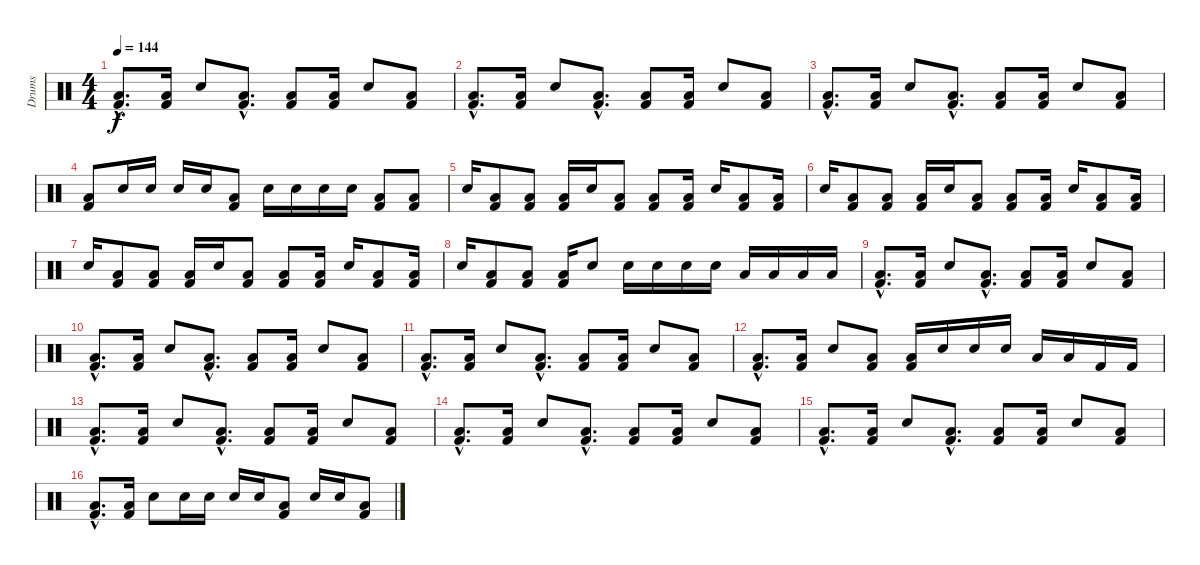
\track ("Drums" "Drums") {instrument percussion}
\staff {score}
\articulation defaults
\ts (4 4)
\tempo 144
\clef neutral
\ks c
("Low Floor Tom (hit)"{hac} "Kick (hit) 2"{hac}).8{d dy f} ("Low Floor Tom (hit)" "Kick (hit) 2").16 "Snare (hit) 2".8 ("Low Floor Tom (hit)"{hac} "Kick (hit) 2"{hac}).8{d} ("Low Floor Tom (hit)" "Kick (hit) 2").8 ("Low Floor Tom (hit)" "Kick (hit) 2").16 "Snare (hit) 2".8 ("Low Floor Tom (hit)" "Kick (hit) 2").8 |
("Low Floor Tom (hit)"{hac} "Kick (hit) 2"{hac}).8{d} ("Low Floor Tom (hit)" "Kick (hit) 2").16 "Snare (hit) 2".8 ("Low Floor Tom (hit)"{hac} "Kick (hit) 2"{hac}).8{d} ("Low Floor Tom (hit)" "Kick (hit) 2").8 ("Low Floor Tom (hit)" "Kick (hit) 2").16 "Snare (hit) 2".8 ("Low Floor Tom (hit)" "Kick (hit) 2").8 |
("Low Floor Tom (hit)"{hac} "Kick (hit) 2"{hac}).8{d} ("Low Floor Tom (hit)" "Kick (hit) 2").16 "Snare (hit) 2".8 ("Low Floor Tom (hit)"{hac} "Kick (hit) 2"{hac}).8{d} ("Low Floor Tom (hit)" "Kick (hit) 2").8 ("Low Floor Tom (hit)" "Kick (hit) 2").16 "Snare (hit) 2".8 ("Low Floor Tom (hit)" "Kick (hit) 2").8 |
("Low Floor Tom (hit)" "Kick (hit) 2").8 "Snare (hit) 2".16 "Snare (hit) 2".16 "Snare (hit) 2".16 "Snare (hit) 2".16 ("Low Floor Tom (hit)" "Kick (hit) 2").8 "Snare (hit) 2".16 "Snare (hit) 2".16 "Snare (hit) 2".16 "Snare (hit) 2".16 ("Low Floor Tom (hit)" "Kick (hit) 2").8 ("Low Floor Tom (hit)" "Kick (hit) 2").8 |
"Snare (hit) 2".16 ("Low Floor Tom (hit)" "Kick (hit) 2").8 ("Low Floor Tom (hit)" "Kick (hit) 2").8 ("Low Floor Tom (hit)" "Kick (hit) 2").16 "Snare (hit) 2".16 ("Low Floor Tom (hit)" "Kick (hit) 2").8 ("Low Floor Tom (hit)" "Kick (hit) 2").8 ("Low Floor Tom (hit)" "Kick (hit) 2").16 "Snare (hit) 2".16 ("Low Floor Tom (hit)" "Kick (hit) 2").8 ("Low Floor Tom (hit)" "Kick (hit) 2").16 |
"Snare (hit) 2".16 ("Low Floor Tom (hit)" "Kick (hit) 2").8 ("Low Floor Tom (hit)" "Kick (hit) 2").8 ("Low Floor Tom (hit)" "Kick (hit) 2").16 "Snare (hit) 2".16 ("Low Floor Tom (hit)" "Kick (hit) 2").8 ("Low Floor Tom (hit)" "Kick (hit) 2").8 ("Low Floor Tom (hit)" "Kick (hit) 2").16 "Snare (hit) 2".16 ("Low Floor Tom (hit)" "Kick (hit) 2").8 ("Low Floor Tom (hit)" "Kick (hit) 2").16 |
"Snare (hit) 2".16 ("Low Floor Tom (hit)" "Kick (hit) 2").8 ("Low Floor Tom (hit)" "Kick (hit) 2").8 ("Low Floor Tom (hit)" "Kick (hit) 2").16 "Snare (hit) 2".16 ("Low Floor Tom (hit)" "Kick (hit) 2").8 ("Low Floor Tom (hit)" "Kick (hit) 2").8 ("Low Floor Tom (hit)" "Kick (hit) 2").16 "Snare (hit) 2".16 ("Low Floor Tom (hit)" "Kick (hit) 2").8 ("Low Floor Tom (hit)" "Kick (hit) 2").16 |
"Snare (hit) 2".16 ("Low Floor Tom (hit)" "Kick (hit) 2").8 ("Low Floor Tom (hit)" "Kick (hit) 2").8 ("Low Floor Tom (hit)" "Kick (hit) 2").16 "Snare (hit) 2".8 "Snare (hit) 2".16 "Snare (hit) 2".16 "Snare (hit) 2".16 "Snare (hit) 2".16 "Low Floor Tom (hit)".16 "Low Floor Tom (hit)".16 "Low Floor Tom (hit)".16 "Low Floor Tom (hit)".16 |
("Low Floor Tom (hit)"{hac} "Kick (hit) 2"{hac}).8{d} ("Low Floor Tom (hit)" "Kick (hit) 2").16 "Snare (hit) 2".8 ("Low Floor Tom (hit)"{hac} "Kick (hit) 2"{hac}).8{d} ("Low Floor Tom (hit)" "Kick (hit) 2").8 ("Low Floor Tom (hit)" "Kick (hit) 2").16 "Snare (hit) 2".8 ("Low Floor Tom (hit)" "Kick (hit) 2").8 |
("Low Floor Tom (hit)"{hac} "Kick (hit) 2"{hac}).8{d} ("Low Floor Tom (hit)" "Kick (hit) 2").16 "Snare (hit) 2".8 ("Low Floor Tom (hit)"{hac} "Kick (hit) 2"{hac}).8{d} ("Low Floor Tom (hit)" "Kick (hit) 2").8 ("Low Floor Tom (hit)" "Kick (hit) 2").16 "Snare (hit) 2".8 ("Low Floor Tom (hit)" "Kick (hit) 2").8 |
("Low Floor Tom (hit)"{hac} "Kick (hit) 2"{hac}).8{d} ("Low Floor Tom (hit)" "Kick (hit) 2").16 "Snare (hit) 2".8 ("Low Floor Tom (hit)"{hac} "Kick (hit) 2"{hac}).8{d} ("Low Floor Tom (hit)" "Kick (hit) 2").8 ("Low Floor Tom (hit)" "Kick (hit) 2").16 "Snare (hit) 2".8 ("Low Floor Tom (hit)" "Kick (hit) 2").8 |
("Low Floor Tom (hit)"{hac} "Kick (hit) 2"{hac}).8{d} ("Low Floor Tom (hit)" "Kick (hit) 2").16 "Snare (hit) 2".8 ("Low Floor Tom (hit)" "Kick (hit) 2").8 ("Low Floor Tom (hit)" "Kick (hit) 2").16 "Snare (hit) 2".16 "Snare (hit) 2".16 "Snare (hit) 2".16 "Low Floor Tom (hit)".16 "Low Floor Tom (hit)".16 "Kick (hit) 2".16 "Kick (hit) 2".16 |
("Low Floor Tom (hit)"{hac} "Kick (hit) 2"{hac}).8{d} ("Low Floor Tom (hit)" "Kick (hit) 2").16 "Snare (hit) 2".8 ("Low Floor Tom (hit)"{hac} "Kick (hit) 2"{hac}).8{d} ("Low Floor Tom (hit)" "Kick (hit) 2").8 ("Low Floor Tom (hit)" "Kick (hit) 2").16 "Snare (hit) 2".8 ("Low Floor Tom (hit)" "Kick (hit) 2").8 |
("Low Floor Tom (hit)"{hac} "Kick (hit) 2"{hac}).8{d} ("Low Floor Tom (hit)" "Kick (hit) 2").16 "Snare (hit) 2".8 ("Low Floor Tom (hit)"{hac} "Kick (hit) 2"{hac}).8{d} ("Low Floor Tom (hit)" "Kick (hit) 2").8 ("Low Floor Tom (hit)" "Kick (hit) 2").16 "Snare (hit) 2".8 ("Low Floor Tom (hit)" "Kick (hit) 2").8 |
("Low Floor Tom (hit)"{hac} "Kick (hit) 2"{hac}).8{d} ("Low Floor Tom (hit)" "Kick (hit) 2").16 "Snare (hit) 2".8 ("Low Floor Tom (hit)"{hac} "Kick (hit) 2"{hac}).8{d} ("Low Floor Tom (hit)" "Kick (hit) 2").8 ("Low Floor Tom (hit)" "Kick (hit) 2").16 "Snare (hit) 2".8 ("Low Floor Tom (hit)" "Kick (hit) 2").8 |
("Low Floor Tom (hit)"{hac} "Kick (hit) 2"{hac}).8{d} ("Low Floor Tom (hit)" "Kick (hit) 2").16 "Snare (hit) 2".8 "Snare (hit) 2".16 "Snare (hit) 2".16 "Snare (hit) 2".16 "Snare (hit) 2".16 ("Low Floor Tom (hit)" "Kick (hit) 2").8 "Snare (hit) 2".16 "Snare (hit) 2".16 ("Low Floor Tom (hit)" "Kick (hit) 2").8
